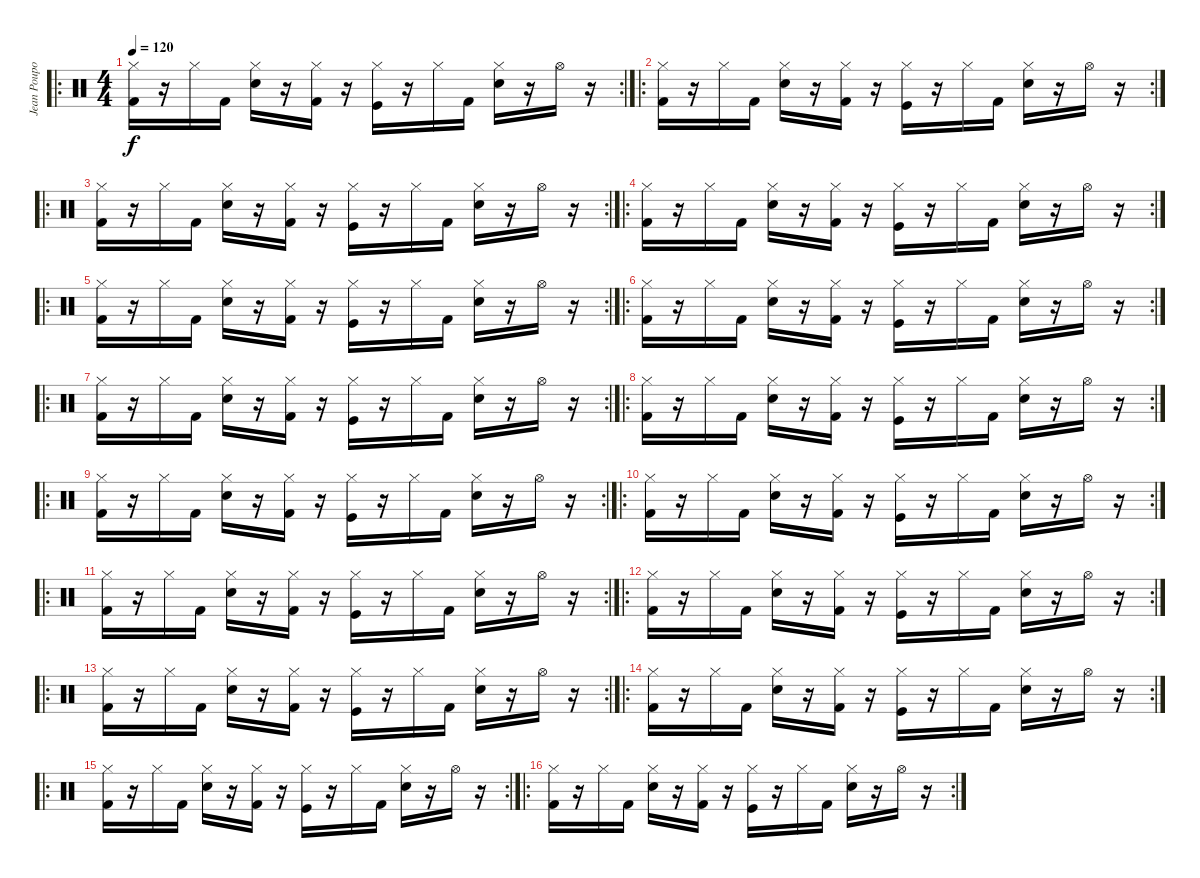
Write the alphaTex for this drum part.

\track ("Jean Poupoutich" "Jean Poupo") {instrument percussion}
\staff {score}
\articulation defaults
\ro
\rc 2
\ts (4 4)
\tempo 120
\clef neutral
\ks c
("Hi-Hat (closed)" "Kick (hit) 2").16{dy f} r.16 "Hi-Hat (closed)".16 "Kick (hit) 2".16 ("Hi-Hat (closed)" "Snare (hit) 2").16 r.16 ("Hi-Hat (closed)" "Kick (hit) 2").16 r.16 ("Hi-Hat (closed)" "Kick (hit)").16 r.16 "Hi-Hat (closed)".16 "Kick (hit) 2".16 ("Hi-Hat (closed)" "Snare (hit) 2").16 r.16 "Hi-Hat (open)".16 r.16 |
\ro
\rc 2
("Hi-Hat (closed)" "Kick (hit) 2").16 r.16 "Hi-Hat (closed)".16 "Kick (hit) 2".16 ("Hi-Hat (closed)" "Snare (hit) 2").16 r.16 ("Hi-Hat (closed)" "Kick (hit) 2").16 r.16 ("Hi-Hat (closed)" "Kick (hit)").16 r.16 "Hi-Hat (closed)".16 "Kick (hit) 2".16 ("Hi-Hat (closed)" "Snare (hit) 2").16 r.16 "Hi-Hat (open)".16 r.16 |
\ro
\rc 2
("Hi-Hat (closed)" "Kick (hit) 2").16 r.16 "Hi-Hat (closed)".16 "Kick (hit) 2".16 ("Hi-Hat (closed)" "Snare (hit) 2").16 r.16 ("Hi-Hat (closed)" "Kick (hit) 2").16 r.16 ("Hi-Hat (closed)" "Kick (hit)").16 r.16 "Hi-Hat (closed)".16 "Kick (hit) 2".16 ("Hi-Hat (closed)" "Snare (hit) 2").16 r.16 "Hi-Hat (open)".16 r.16 |
\ro
\rc 2
("Hi-Hat (closed)" "Kick (hit) 2").16 r.16 "Hi-Hat (closed)".16 "Kick (hit) 2".16 ("Hi-Hat (closed)" "Snare (hit) 2").16 r.16 ("Hi-Hat (closed)" "Kick (hit) 2").16 r.16 ("Hi-Hat (closed)" "Kick (hit)").16 r.16 "Hi-Hat (closed)".16 "Kick (hit) 2".16 ("Hi-Hat (closed)" "Snare (hit) 2").16 r.16 "Hi-Hat (open)".16 r.16 |
\ro
\rc 2
("Hi-Hat (closed)" "Kick (hit) 2").16 r.16 "Hi-Hat (closed)".16 "Kick (hit) 2".16 ("Hi-Hat (closed)" "Snare (hit) 2").16 r.16 ("Hi-Hat (closed)" "Kick (hit) 2").16 r.16 ("Hi-Hat (closed)" "Kick (hit)").16 r.16 "Hi-Hat (closed)".16 "Kick (hit) 2".16 ("Hi-Hat (closed)" "Snare (hit) 2").16 r.16 "Hi-Hat (open)".16 r.16 |
\ro
\rc 2
("Hi-Hat (closed)" "Kick (hit) 2").16 r.16 "Hi-Hat (closed)".16 "Kick (hit) 2".16 ("Hi-Hat (closed)" "Snare (hit) 2").16 r.16 ("Hi-Hat (closed)" "Kick (hit) 2").16 r.16 ("Hi-Hat (closed)" "Kick (hit)").16 r.16 "Hi-Hat (closed)".16 "Kick (hit) 2".16 ("Hi-Hat (closed)" "Snare (hit) 2").16 r.16 "Hi-Hat (open)".16 r.16 |
\ro
\rc 2
("Hi-Hat (closed)" "Kick (hit) 2").16 r.16 "Hi-Hat (closed)".16 "Kick (hit) 2".16 ("Hi-Hat (closed)" "Snare (hit) 2").16 r.16 ("Hi-Hat (closed)" "Kick (hit) 2").16 r.16 ("Hi-Hat (closed)" "Kick (hit)").16 r.16 "Hi-Hat (closed)".16 "Kick (hit) 2".16 ("Hi-Hat (closed)" "Snare (hit) 2").16 r.16 "Hi-Hat (open)".16 r.16 |
\ro
\rc 2
("Hi-Hat (closed)" "Kick (hit) 2").16 r.16 "Hi-Hat (closed)".16 "Kick (hit) 2".16 ("Hi-Hat (closed)" "Snare (hit) 2").16 r.16 ("Hi-Hat (closed)" "Kick (hit) 2").16 r.16 ("Hi-Hat (closed)" "Kick (hit)").16 r.16 "Hi-Hat (closed)".16 "Kick (hit) 2".16 ("Hi-Hat (closed)" "Snare (hit) 2").16 r.16 "Hi-Hat (open)".16 r.16 |
\ro
\rc 2
("Hi-Hat (closed)" "Kick (hit) 2").16 r.16 "Hi-Hat (closed)".16 "Kick (hit) 2".16 ("Hi-Hat (closed)" "Snare (hit) 2").16 r.16 ("Hi-Hat (closed)" "Kick (hit) 2").16 r.16 ("Hi-Hat (closed)" "Kick (hit)").16 r.16 "Hi-Hat (closed)".16 "Kick (hit) 2".16 ("Hi-Hat (closed)" "Snare (hit) 2").16 r.16 "Hi-Hat (open)".16 r.16 |
\ro
\rc 2
("Hi-Hat (closed)" "Kick (hit) 2").16 r.16 "Hi-Hat (closed)".16 "Kick (hit) 2".16 ("Hi-Hat (closed)" "Snare (hit) 2").16 r.16 ("Hi-Hat (closed)" "Kick (hit) 2").16 r.16 ("Hi-Hat (closed)" "Kick (hit)").16 r.16 "Hi-Hat (closed)".16 "Kick (hit) 2".16 ("Hi-Hat (closed)" "Snare (hit) 2").16 r.16 "Hi-Hat (open)".16 r.16 |
\ro
\rc 2
("Hi-Hat (closed)" "Kick (hit) 2").16 r.16 "Hi-Hat (closed)".16 "Kick (hit) 2".16 ("Hi-Hat (closed)" "Snare (hit) 2").16 r.16 ("Hi-Hat (closed)" "Kick (hit) 2").16 r.16 ("Hi-Hat (closed)" "Kick (hit)").16 r.16 "Hi-Hat (closed)".16 "Kick (hit) 2".16 ("Hi-Hat (closed)" "Snare (hit) 2").16 r.16 "Hi-Hat (open)".16 r.16 |
\ro
\rc 2
("Hi-Hat (closed)" "Kick (hit) 2").16 r.16 "Hi-Hat (closed)".16 "Kick (hit) 2".16 ("Hi-Hat (closed)" "Snare (hit) 2").16 r.16 ("Hi-Hat (closed)" "Kick (hit) 2").16 r.16 ("Hi-Hat (closed)" "Kick (hit)").16 r.16 "Hi-Hat (closed)".16 "Kick (hit) 2".16 ("Hi-Hat (closed)" "Snare (hit) 2").16 r.16 "Hi-Hat (open)".16 r.16 |
\ro
\rc 2
("Hi-Hat (closed)" "Kick (hit) 2").16 r.16 "Hi-Hat (closed)".16 "Kick (hit) 2".16 ("Hi-Hat (closed)" "Snare (hit) 2").16 r.16 ("Hi-Hat (closed)" "Kick (hit) 2").16 r.16 ("Hi-Hat (closed)" "Kick (hit)").16 r.16 "Hi-Hat (closed)".16 "Kick (hit) 2".16 ("Hi-Hat (closed)" "Snare (hit) 2").16 r.16 "Hi-Hat (open)".16 r.16 |
\ro
\rc 2
("Hi-Hat (closed)" "Kick (hit) 2").16 r.16 "Hi-Hat (closed)".16 "Kick (hit) 2".16 ("Hi-Hat (closed)" "Snare (hit) 2").16 r.16 ("Hi-Hat (closed)" "Kick (hit) 2").16 r.16 ("Hi-Hat (closed)" "Kick (hit)").16 r.16 "Hi-Hat (closed)".16 "Kick (hit) 2".16 ("Hi-Hat (closed)" "Snare (hit) 2").16 r.16 "Hi-Hat (open)".16 r.16 |
\ro
\rc 2
("Hi-Hat (closed)" "Kick (hit) 2").16 r.16 "Hi-Hat (closed)".16 "Kick (hit) 2".16 ("Hi-Hat (closed)" "Snare (hit) 2").16 r.16 ("Hi-Hat (closed)" "Kick (hit) 2").16 r.16 ("Hi-Hat (closed)" "Kick (hit)").16 r.16 "Hi-Hat (closed)".16 "Kick (hit) 2".16 ("Hi-Hat (closed)" "Snare (hit) 2").16 r.16 "Hi-Hat (open)".16 r.16 |
\ro
\rc 2
("Hi-Hat (closed)" "Kick (hit) 2").16 r.16 "Hi-Hat (closed)".16 "Kick (hit) 2".16 ("Hi-Hat (closed)" "Snare (hit) 2").16 r.16 ("Hi-Hat (closed)" "Kick (hit) 2").16 r.16 ("Hi-Hat (closed)" "Kick (hit)").16 r.16 "Hi-Hat (closed)".16 "Kick (hit) 2".16 ("Hi-Hat (closed)" "Snare (hit) 2").16 r.16 "Hi-Hat (open)".16 r.16
